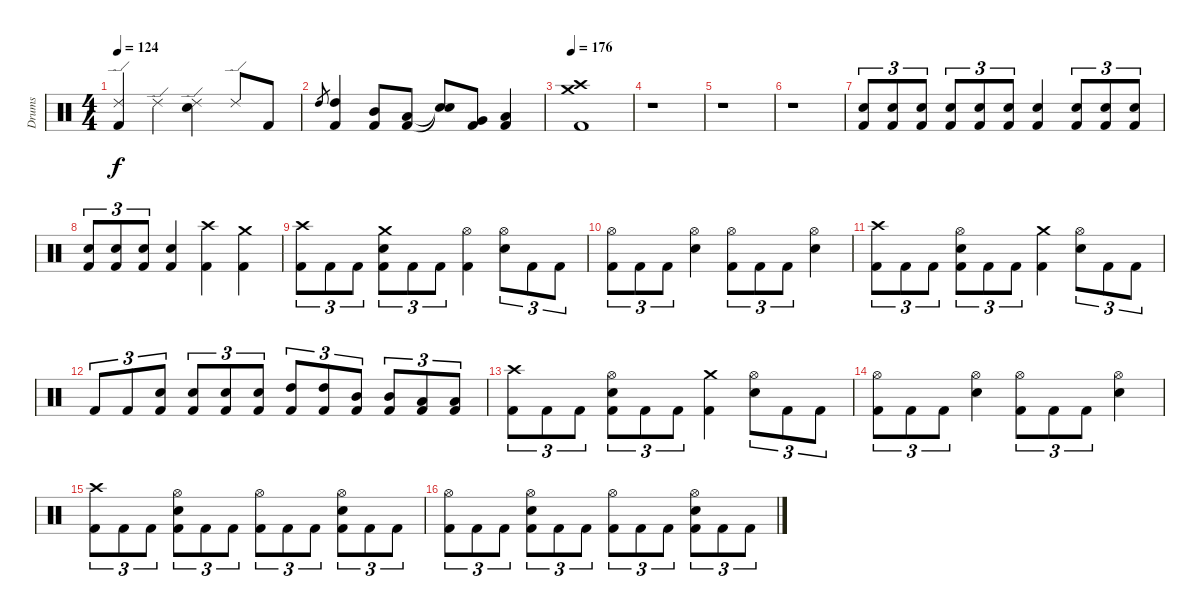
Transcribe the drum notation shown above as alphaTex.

\track ("Drums" "Drums") {instrument percussion}
\staff {score}
\articulation defaults
\ts (4 4)
\tempo 124
\clef neutral
\ks c
("Kick (hit) 2" "Ride (edge) 2").4{dy f} "Ride (edge) 2".4 ("Electric Snare (hit)" "Ride (edge) 2").4 "Ride (edge) 2".8 "Kick (hit) 2".8 |
"High Tom (hit)".8{gr} ("Kick (hit) 2" "High Tom (hit)").4 ("Kick (hit) 2" "Mid Tom (hit)").8 ("Kick (hit) 2" "Low Tom (hit)").8 ("Snare (hit)"{t} "Snare (hit)"{t}).8 ("Kick (hit) 2" "Very Low Tom (hit)").8 ("Kick (hit) 2" "Low Floor Tom (hit)").4 |
\section ("" "")
\tempo 176
("Kick (hit) 2" "Crash medium (hit)" "Crash high (hit)").1 |
r.1 |
r.1 |
r.1 |
("Kick (hit) 2" "Electric Snare (hit)").8{tu (3 2)} ("Kick (hit) 2" "Electric Snare (hit)").8{tu (3 2)} ("Kick (hit) 2" "Electric Snare (hit)").8{tu (3 2)} ("Kick (hit) 2" "Electric Snare (hit)").8{tu (3 2)} ("Kick (hit) 2" "Electric Snare (hit)").8{tu (3 2)} ("Kick (hit) 2" "Electric Snare (hit)").8{tu (3 2)} ("Kick (hit) 2" "Electric Snare (hit)").4 ("Kick (hit) 2" "Electric Snare (hit)").8{tu (3 2)} ("Kick (hit) 2" "Electric Snare (hit)").8{tu (3 2)} ("Kick (hit) 2" "Electric Snare (hit)").8{tu (3 2)} |
("Kick (hit) 2" "Electric Snare (hit)").8{tu (3 2)} ("Kick (hit) 2" "Electric Snare (hit)").8{tu (3 2)} ("Kick (hit) 2" "Electric Snare (hit)").8{tu (3 2)} ("Kick (hit) 2" "Electric Snare (hit)").4 ("Kick (hit) 2" "Crash high (hit)").4 ("Kick (hit) 2" "Crash medium (hit)").4 |
("Kick (hit) 2" "Crash high (hit)").8{tu (3 2)} "Kick (hit) 2".8{tu (3 2)} "Kick (hit) 2".8{tu (3 2)} ("Kick (hit) 2" "Electric Snare (hit)" "Crash medium (hit)").8{tu (3 2)} "Kick (hit) 2".8{tu (3 2)} "Kick (hit) 2".8{tu (3 2)} ("Kick (hit) 2" "Hi-Hat (open)").4 ("Electric Snare (hit)" "Hi-Hat (open)").8{tu (3 2)} "Kick (hit) 2".8{tu (3 2)} "Kick (hit) 2".8{tu (3 2)} |
("Kick (hit) 2" "Hi-Hat (open)").8{tu (3 2)} "Kick (hit) 2".8{tu (3 2)} "Kick (hit) 2".8{tu (3 2)} ("Electric Snare (hit)" "Hi-Hat (open)").4 ("Kick (hit) 2" "Hi-Hat (open)").8{tu (3 2)} "Kick (hit) 2".8{tu (3 2)} "Kick (hit) 2".8{tu (3 2)} ("Electric Snare (hit)" "Hi-Hat (open)").4 |
("Kick (hit) 2" "Crash high (hit)").8{tu (3 2)} "Kick (hit) 2".8{tu (3 2)} "Kick (hit) 2".8{tu (3 2)} ("Kick (hit) 2" "Electric Snare (hit)" "Hi-Hat (open)").8{tu (3 2)} "Kick (hit) 2".8{tu (3 2)} "Kick (hit) 2".8{tu (3 2)} ("Kick (hit) 2" "Crash medium (hit)").4 ("Electric Snare (hit)" "Hi-Hat (open)").8{tu (3 2)} "Kick (hit) 2".8{tu (3 2)} "Kick (hit) 2".8{tu (3 2)} |
"Kick (hit) 2".8{tu (3 2)} "Kick (hit) 2".8{tu (3 2)} ("Kick (hit) 2" "Electric Snare (hit)").8{tu (3 2)} ("Kick (hit) 2" "Electric Snare (hit)").8{tu (3 2)} ("Kick (hit) 2" "Electric Snare (hit)").8{tu (3 2)} ("Kick (hit) 2" "Electric Snare (hit)").8{tu (3 2)} ("Kick (hit) 2" "High Tom (hit)").8{tu (3 2)} ("Kick (hit) 2" "High Tom (hit)").8{tu (3 2)} ("Kick (hit) 2" "Mid Tom (hit)").8{tu (3 2)} ("Kick (hit) 2" "Mid Tom (hit)").8{tu (3 2)} ("Kick (hit) 2" "Low Tom (hit)").8{tu (3 2)} ("Kick (hit) 2" "Low Tom (hit)").8{tu (3 2)} |
\section ("" "")
("Kick (hit) 2" "Crash high (hit)").8{tu (3 2)} "Kick (hit) 2".8{tu (3 2)} "Kick (hit) 2".8{tu (3 2)} ("Kick (hit) 2" "Electric Snare (hit)" "Hi-Hat (open)").8{tu (3 2)} "Kick (hit) 2".8{tu (3 2)} "Kick (hit) 2".8{tu (3 2)} ("Kick (hit) 2" "Crash medium (hit)").4 ("Electric Snare (hit)" "Hi-Hat (open)").8{tu (3 2)} "Kick (hit) 2".8{tu (3 2)} "Kick (hit) 2".8{tu (3 2)} |
("Kick (hit) 2" "Hi-Hat (open)").8{tu (3 2)} "Kick (hit) 2".8{tu (3 2)} "Kick (hit) 2".8{tu (3 2)} ("Electric Snare (hit)" "Hi-Hat (open)").4 ("Kick (hit) 2" "Hi-Hat (open)").8{tu (3 2)} "Kick (hit) 2".8{tu (3 2)} "Kick (hit) 2".8{tu (3 2)} ("Electric Snare (hit)" "Hi-Hat (open)").4 |
("Kick (hit) 2" "Crash high (hit)").8{tu (3 2)} "Kick (hit) 2".8{tu (3 2)} "Kick (hit) 2".8{tu (3 2)} ("Kick (hit) 2" "Electric Snare (hit)" "Hi-Hat (open)").8{tu (3 2)} "Kick (hit) 2".8{tu (3 2)} "Kick (hit) 2".8{tu (3 2)} ("Kick (hit) 2" "Hi-Hat (open)").8{tu (3 2)} "Kick (hit) 2".8{tu (3 2)} "Kick (hit) 2".8{tu (3 2)} ("Kick (hit) 2" "Electric Snare (hit)" "Hi-Hat (open)").8{tu (3 2)} "Kick (hit) 2".8{tu (3 2)} "Kick (hit) 2".8{tu (3 2)} |
("Kick (hit) 2" "Hi-Hat (open)").8{tu (3 2)} "Kick (hit) 2".8{tu (3 2)} "Kick (hit) 2".8{tu (3 2)} ("Kick (hit) 2" "Electric Snare (hit)" "Hi-Hat (open)").8{tu (3 2)} "Kick (hit) 2".8{tu (3 2)} "Kick (hit) 2".8{tu (3 2)} ("Kick (hit) 2" "Hi-Hat (open)").8{tu (3 2)} "Kick (hit) 2".8{tu (3 2)} "Kick (hit) 2".8{tu (3 2)} ("Kick (hit) 2" "Electric Snare (hit)" "Hi-Hat (open)").8{tu (3 2)} "Kick (hit) 2".8{tu (3 2)} "Kick (hit) 2".8{tu (3 2)}
